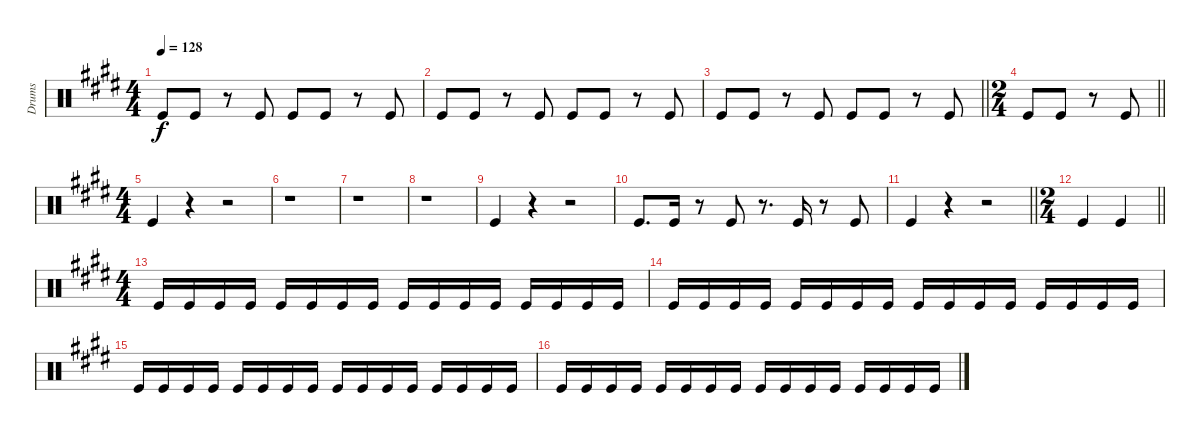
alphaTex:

\track ("Drums" "Drums") {instrument percussion}
\staff {score}
\articulation defaults
\ts (4 4)
\tempo 128
\clef neutral
\ks e "Kick (hit)".8{dy f} "Kick (hit)".8
r.8 "Kick (hit)".8 "Kick (hit)".8 "Kick (hit)".8 r.8 "Kick (hit)".8 |
"Kick (hit)".8 "Kick (hit)".8 r.8 "Kick (hit)".8 "Kick (hit)".8 "Kick (hit)".8 r.8 "Kick (hit)".8 |
\barLineRight lightlight "Kick (hit)".8 "Kick (hit)".8
r.8 "Kick (hit)".8 "Kick (hit)".8 "Kick (hit)".8 r.8 "Kick (hit)".8 |
\ts (2 4)
\barLineRight lightlight "Kick (hit)".8 "Kick (hit)".8
r.8 "Kick (hit)".8 |
\ts (4 4)
"Kick (hit)".4 r.4 r.2 |
r.1 |
r.1 |
r.1 |
"Kick (hit)".4 r.4 r.2 |
"Kick (hit)".8{d} "Kick (hit)".16 r.8 "Kick (hit)".8 r.8{d} "Kick (hit)".16 r.8 "Kick (hit)".8 |
\barLineRight lightlight "Kick (hit)".4
r.4 r.2 |
\ts (2 4)
\barLineRight lightlight "Kick (hit)".4 "Kick (hit)".4
|
\ts (4 4)
"Kick (hit)".16 "Kick (hit)".16 "Kick (hit)".16 "Kick (hit)".16 "Kick (hit)".16 "Kick (hit)".16 "Kick (hit)".16 "Kick (hit)".16 "Kick (hit)".16 "Kick (hit)".16 "Kick (hit)".16 "Kick (hit)".16 "Kick (hit)".16 "Kick (hit)".16 "Kick (hit)".16 "Kick (hit)".16 |
"Kick (hit)".16 "Kick (hit)".16 "Kick (hit)".16 "Kick (hit)".16 "Kick (hit)".16 "Kick (hit)".16 "Kick (hit)".16 "Kick (hit)".16 "Kick (hit)".16 "Kick (hit)".16 "Kick (hit)".16 "Kick (hit)".16 "Kick (hit)".16 "Kick (hit)".16 "Kick (hit)".16 "Kick (hit)".16 |
"Kick (hit)".16 "Kick (hit)".16 "Kick (hit)".16 "Kick (hit)".16 "Kick (hit)".16 "Kick (hit)".16 "Kick (hit)".16 "Kick (hit)".16 "Kick (hit)".16 "Kick (hit)".16 "Kick (hit)".16 "Kick (hit)".16 "Kick (hit)".16 "Kick (hit)".16 "Kick (hit)".16 "Kick (hit)".16 |
"Kick (hit)".16 "Kick (hit)".16 "Kick (hit)".16 "Kick (hit)".16 "Kick (hit)".16 "Kick (hit)".16 "Kick (hit)".16 "Kick (hit)".16 "Kick (hit)".16 "Kick (hit)".16 "Kick (hit)".16 "Kick (hit)".16 "Kick (hit)".16 "Kick (hit)".16 "Kick (hit)".16 "Kick (hit)".16
